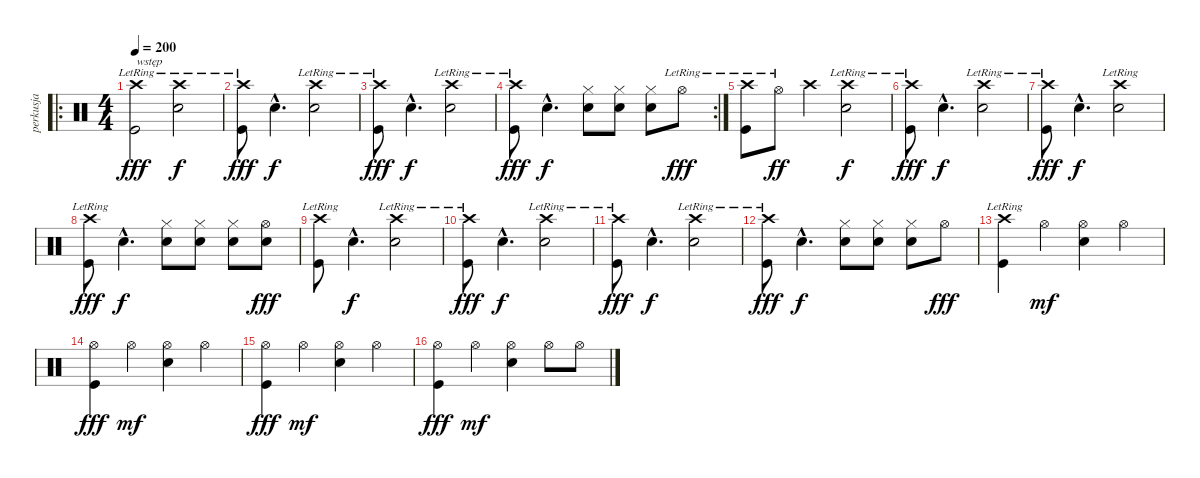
\track ("perkusja" "perkusja") {instrument percussion}
\staff {score}
\articulation defaults
\ro
\ts (4 4)
\tempo 200
\clef neutral
\ks c
("Crash high (hit)"{lr} "Kick (hit)").2{txt "wstęp" dy fff} ("Crash high (hit)"{lr} "Electric Snare (hit)").2{dy f} |
("Crash high (hit)"{lr} "Kick (hit)").8{dy fff} "Electric Snare (hit)"{hac}.4{d dy f} ("Crash high (hit)"{lr} "Electric Snare (hit)").2 |
("Crash high (hit)"{lr} "Kick (hit)").8{dy fff} "Electric Snare (hit)"{hac}.4{d dy f} ("Crash high (hit)"{lr} "Electric Snare (hit)").2 |
\rc 2
("Crash high (hit)"{lr} "Kick (hit)").8{dy fff} "Electric Snare (hit)"{hac}.4{d dy f} ("Hi-Hat (closed)" "Electric Snare (hit)").8 ("Hi-Hat (closed)" "Electric Snare (hit)").8 ("Hi-Hat (closed)" "Electric Snare (hit)").8 "Hi-Hat (open)"{lr}.8{dy fff} |
("Crash high (hit)"{lr} "Kick (hit)").8 "Hi-Hat (open)"{lr}.8{dy ff} "Crash high (hit)".4 ("Crash high (hit)"{lr} "Electric Snare (hit)").2{dy f} |
("Crash high (hit)"{lr} "Kick (hit)").8{dy fff} "Electric Snare (hit)"{hac}.4{d dy f} ("Crash high (hit)"{lr} "Electric Snare (hit)").2 |
("Crash high (hit)"{lr} "Kick (hit)").8{dy fff} "Electric Snare (hit)"{hac}.4{d dy f} ("Crash high (hit)"{lr} "Electric Snare (hit)").2 |
("Crash high (hit)"{lr} "Kick (hit)").8{dy fff} "Electric Snare (hit)"{hac}.4{d dy f} ("Hi-Hat (closed)" "Electric Snare (hit)").8 ("Hi-Hat (closed)" "Electric Snare (hit)").8 ("Hi-Hat (closed)" "Electric Snare (hit)").8 ("Hi-Hat (open)" "Electric Snare (hit)").8{dy fff} |
("Crash high (hit)"{lr} "Kick (hit)").8 "Electric Snare (hit)"{hac}.4{d dy f} ("Crash high (hit)"{lr} "Electric Snare (hit)").2 |
("Crash high (hit)"{lr} "Kick (hit)").8{dy fff} "Electric Snare (hit)"{hac}.4{d dy f} ("Crash high (hit)"{lr} "Electric Snare (hit)").2 |
("Crash high (hit)"{lr} "Kick (hit)").8{dy fff} "Electric Snare (hit)"{hac}.4{d dy f} ("Crash high (hit)"{lr} "Electric Snare (hit)").2 |
("Crash high (hit)"{lr} "Kick (hit)").8{dy fff} "Electric Snare (hit)"{hac}.4{d dy f} ("Hi-Hat (closed)" "Electric Snare (hit)").8 ("Hi-Hat (closed)" "Electric Snare (hit)").8 ("Hi-Hat (closed)" "Electric Snare (hit)").8 "Hi-Hat (open)".8{dy fff} |
("Crash high (hit)"{lr} "Kick (hit)").4 "Hi-Hat (open)".4{dy mf} ("Hi-Hat (open)" "Electric Snare (hit)").4 "Hi-Hat (open)".4 |
("Hi-Hat (open)" "Kick (hit)").4{dy fff} "Hi-Hat (open)".4{dy mf} ("Hi-Hat (open)" "Electric Snare (hit)").4 "Hi-Hat (open)".4 |
("Hi-Hat (open)" "Kick (hit)").4{dy fff} "Hi-Hat (open)".4{dy mf} ("Hi-Hat (open)" "Electric Snare (hit)").4 "Hi-Hat (open)".4 |
("Hi-Hat (open)" "Kick (hit)").4{dy fff} "Hi-Hat (open)".4{dy mf} ("Hi-Hat (open)" "Electric Snare (hit)").4 "Hi-Hat (open)".8 "Hi-Hat (open)".8
